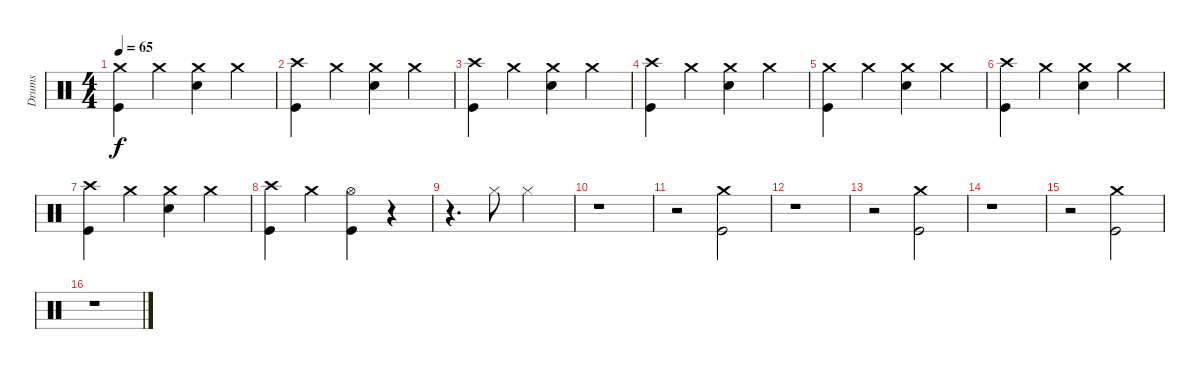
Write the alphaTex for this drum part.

\track ("Drums" "Drums") {instrument percussion}
\staff {score}
\articulation defaults
\ts (4 4)
\tempo 65
\clef neutral
\ks c
("Crash medium (hit)" "Kick (hit)").4{dy f} "Crash medium (hit)".4 ("Crash medium (hit)" "Snare (hit) 2").4 "Crash medium (hit)".4 |
("Crash high (hit)" "Kick (hit)").4 "Crash medium (hit)".4 ("Crash medium (hit)" "Snare (hit) 2").4 "Crash medium (hit)".4 |
("Crash high (hit)" "Kick (hit)").4 "Crash medium (hit)".4 ("Crash medium (hit)" "Snare (hit) 2").4 "Crash medium (hit)".4 |
("Crash high (hit)" "Kick (hit)").4 "Crash medium (hit)".4 ("Crash medium (hit)" "Snare (hit) 2").4 "Crash medium (hit)".4 |
("Crash medium (hit)" "Kick (hit)").4 "Crash medium (hit)".4 ("Crash medium (hit)" "Snare (hit) 2").4 "Crash medium (hit)".4 |
("Crash high (hit)" "Kick (hit)").4 "Crash medium (hit)".4 ("Crash medium (hit)" "Snare (hit) 2").4 "Crash medium (hit)".4 |
("Crash high (hit)" "Kick (hit)").4 "Crash medium (hit)".4 ("Crash medium (hit)" "Snare (hit) 2").4 "Crash medium (hit)".4 |
("Crash high (hit)" "Kick (hit)").4 "Crash medium (hit)".4 ("Hi-Hat (open)" "Kick (hit)").4 r.4 |
r.4{d} "Hi-Hat (closed)".8 "Hi-Hat (closed)".2 |
r.1 |
r.2 ("Crash medium (hit)" "Kick (hit)").2 |
r.1 |
r.2 ("Crash medium (hit)" "Kick (hit)").2 |
r.1 |
r.2 ("Crash medium (hit)" "Kick (hit)").2 |
r.1
